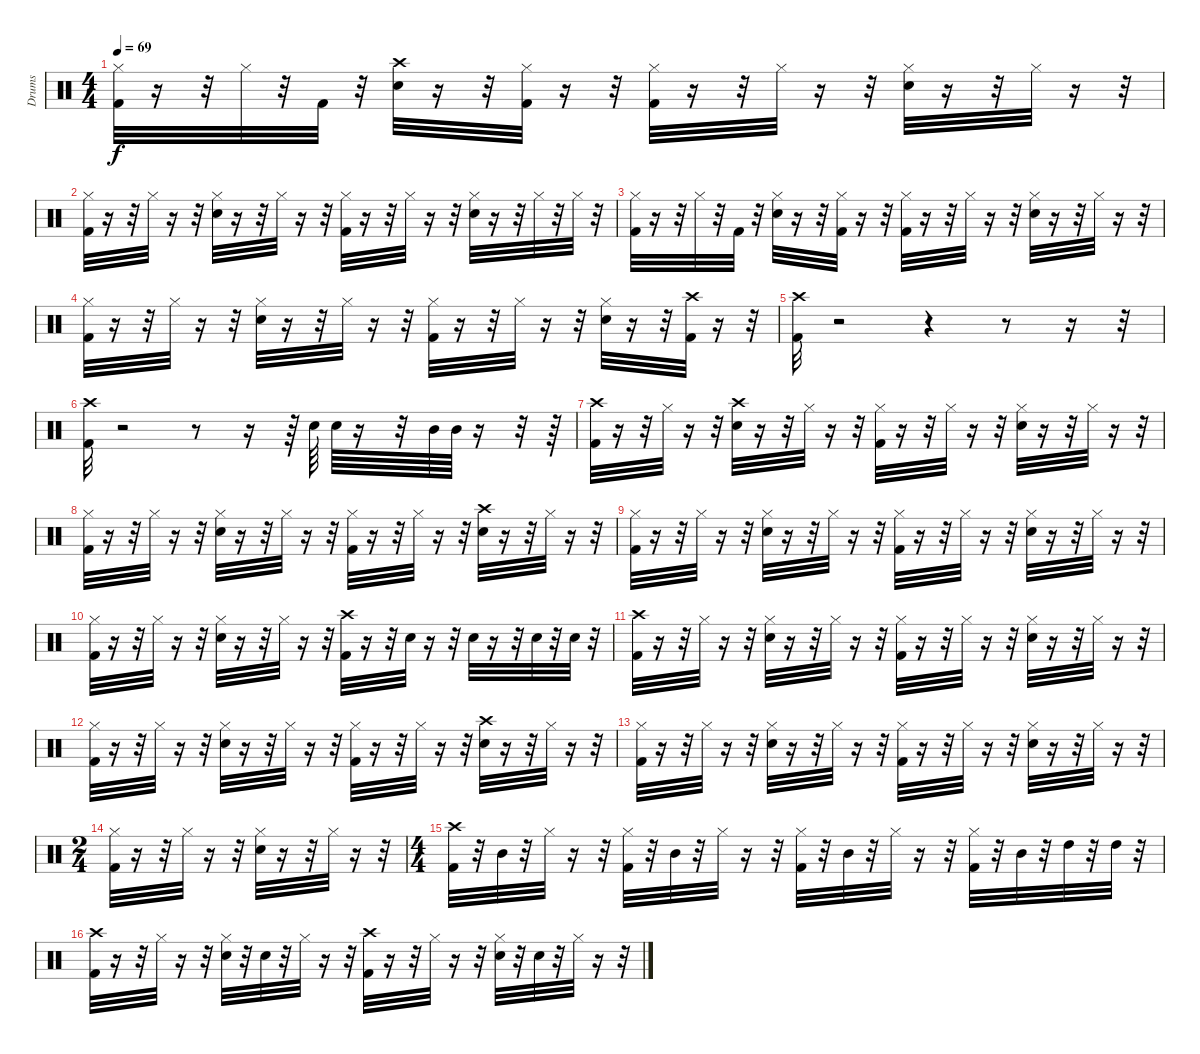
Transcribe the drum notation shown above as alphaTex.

\track ("Drums" "Drums") {instrument percussion}
\staff {score}
\articulation defaults
\ts (4 4)
\tempo 69
\clef neutral
\ks c
("Hi-Hat (closed)" "Kick (hit) 2").32{dy f} r.16 r.32 "Hi-Hat (closed)".32 r.32 "Kick (hit) 2".32 r.32 ("Crash high (hit)" "Snare (hit) 2").32 r.16 r.32 ("Hi-Hat (closed)" "Kick (hit) 2").32 r.16 r.32 ("Hi-Hat (closed)" "Kick (hit) 2").32 r.16 r.32 "Hi-Hat (closed)".32 r.16 r.32 ("Snare (hit) 2" "Hi-Hat (closed)").32 r.16 r.32 "Hi-Hat (closed)".32 r.16 r.32 |
("Hi-Hat (closed)" "Kick (hit) 2").32 r.16 r.32 "Hi-Hat (closed)".32 r.16 r.32 ("Snare (hit) 2" "Hi-Hat (closed)").32 r.16 r.32 "Hi-Hat (closed)".32 r.16 r.32 ("Kick (hit) 2" "Hi-Hat (closed)").32 r.16 r.32 "Hi-Hat (closed)".32 r.16 r.32 ("Hi-Hat (closed)" "Snare (hit) 2").32 r.16 r.32 "Hi-Hat (closed)".32 r.32 "Hi-Hat (closed)".32 r.32 |
("Hi-Hat (closed)" "Kick (hit) 2").32 r.16 r.32 "Hi-Hat (closed)".32 r.32 "Kick (hit) 2".32 r.32 ("Snare (hit) 2" "Hi-Hat (closed)").32 r.16 r.32 ("Kick (hit) 2" "Hi-Hat (closed)").32 r.16 r.32 ("Hi-Hat (closed)" "Kick (hit) 2").32 r.16 r.32 "Hi-Hat (closed)".32 r.16 r.32 ("Snare (hit) 2" "Hi-Hat (closed)").32 r.16 r.32 "Hi-Hat (closed)".32 r.16 r.32 |
("Hi-Hat (closed)" "Kick (hit) 2").32 r.16 r.32 "Hi-Hat (closed)".32 r.16 r.32 ("Snare (hit) 2" "Hi-Hat (closed)").32 r.16 r.32 "Hi-Hat (closed)".32 r.16 r.32 ("Hi-Hat (closed)" "Kick (hit) 2").32 r.16 r.32 "Hi-Hat (closed)".32 r.16 r.32 ("Snare (hit) 2" "Hi-Hat (closed)").32 r.16 r.32 ("Crash high (hit)" "Kick (hit) 2").32 r.16 r.32 |
("Kick (hit) 2" "Crash high (hit)").32 r.2 r.4 r.8 r.16 r.32 |
("Kick (hit) 2" "Crash high (hit)").32 r.2 r.8 r.16 r.64 "Snare (hit) 2".64 "Snare (hit) 2".64 r.16 r.32 "Mid Tom (hit)".64 "Mid Tom (hit)".64 r.16 r.32 r.64 |
("Kick (hit) 2" "Crash high (hit)").32 r.16 r.32 "Hi-Hat (closed)".32 r.16 r.32 ("Crash high (hit)" "Snare (hit) 2").32 r.16 r.32 "Hi-Hat (closed)".32 r.16 r.32 ("Hi-Hat (closed)" "Kick (hit) 2").32 r.16 r.32 "Hi-Hat (closed)".32 r.16 r.32 ("Snare (hit) 2" "Hi-Hat (closed)").32 r.16 r.32 "Hi-Hat (closed)".32 r.16 r.32 |
("Kick (hit) 2" "Hi-Hat (closed)").32 r.16 r.32 "Hi-Hat (closed)".32 r.16 r.32 ("Snare (hit) 2" "Hi-Hat (closed)").32 r.16 r.32 "Hi-Hat (closed)".32 r.16 r.32 ("Hi-Hat (closed)" "Kick (hit) 2").32 r.16 r.32 "Hi-Hat (closed)".32 r.16 r.32 ("Crash high (hit)" "Snare (hit) 2").32 r.16 r.32 "Hi-Hat (closed)".32 r.16 r.32 |
("Hi-Hat (closed)" "Kick (hit) 2").32 r.16 r.32 "Hi-Hat (closed)".32 r.16 r.32 ("Snare (hit) 2" "Hi-Hat (closed)").32 r.16 r.32 "Hi-Hat (closed)".32 r.16 r.32 ("Hi-Hat (closed)" "Kick (hit) 2").32 r.16 r.32 "Hi-Hat (closed)".32 r.16 r.32 ("Snare (hit) 2" "Hi-Hat (closed)").32 r.16 r.32 "Hi-Hat (closed)".32 r.16 r.32 |
("Kick (hit) 2" "Hi-Hat (closed)").32 r.16 r.32 "Hi-Hat (closed)".32 r.16 r.32 ("Snare (hit) 2" "Hi-Hat (closed)").32 r.16 r.32 "Hi-Hat (closed)".32 r.16 r.32 ("Crash high (hit)" "Kick (hit) 2").32 r.16 r.32 "Snare (hit) 2".32 r.16 r.32 "Snare (hit) 2".32 r.16 r.32 "Snare (hit) 2".32 r.32 "Snare (hit) 2".32 r.32 |
("Kick (hit) 2" "Crash high (hit)").32 r.16 r.32 "Hi-Hat (closed)".32 r.16 r.32 ("Snare (hit) 2" "Hi-Hat (closed)").32 r.16 r.32 "Hi-Hat (closed)".32 r.16 r.32 ("Hi-Hat (closed)" "Kick (hit) 2").32 r.16 r.32 "Hi-Hat (closed)".32 r.16 r.32 ("Snare (hit) 2" "Hi-Hat (closed)").32 r.16 r.32 "Hi-Hat (closed)".32 r.16 r.32 |
("Kick (hit) 2" "Hi-Hat (closed)").32 r.16 r.32 "Hi-Hat (closed)".32 r.16 r.32 ("Snare (hit) 2" "Hi-Hat (closed)").32 r.16 r.32 "Hi-Hat (closed)".32 r.16 r.32 ("Hi-Hat (closed)" "Kick (hit) 2").32 r.16 r.32 "Hi-Hat (closed)".32 r.16 r.32 ("Crash high (hit)" "Snare (hit) 2").32 r.16 r.32 "Hi-Hat (closed)".32 r.16 r.32 |
("Kick (hit) 2" "Hi-Hat (closed)").32 r.16 r.32 "Hi-Hat (closed)".32 r.16 r.32 ("Snare (hit) 2" "Hi-Hat (closed)").32 r.16 r.32 "Hi-Hat (closed)".32 r.16 r.32 ("Kick (hit) 2" "Hi-Hat (closed)").32 r.16 r.32 "Hi-Hat (closed)".32 r.16 r.32 ("Snare (hit) 2" "Hi-Hat (closed)").32 r.16 r.32 "Hi-Hat (closed)".32 r.16 r.32 |
\ts (2 4)
("Kick (hit) 2" "Hi-Hat (closed)").32 r.16 r.32 "Hi-Hat (closed)".32 r.16 r.32 ("Snare (hit) 2" "Hi-Hat (closed)").32 r.16 r.32 "Hi-Hat (closed)".32 r.16 r.32 |
\ts (4 4)
("Kick (hit) 2" "Crash high (hit)").32 r.32 "Mid Tom (hit)".32 r.32 "Hi-Hat (closed)".32 r.16 r.32 ("Hi-Hat (closed)" "Kick (hit) 2").32 r.32 "Mid Tom (hit)".32 r.32 "Hi-Hat (closed)".32 r.16 r.32 ("Hi-Hat (closed)" "Kick (hit) 2").32 r.32 "Mid Tom (hit)".32 r.32 "Hi-Hat (closed)".32 r.16 r.32 ("Hi-Hat (closed)" "Kick (hit) 2").32 r.32 "Mid Tom (hit)".32 r.32 "High Tom (hit)".32 r.32 "High Tom (hit)".32 r.32 |
("Kick (hit) 2" "Crash high (hit)").32 r.16 r.32 "Hi-Hat (closed)".32 r.16 r.32 ("Snare (hit) 2" "Hi-Hat (closed)").32 r.32 "Snare (hit) 2".32 r.32 "Hi-Hat (closed)".32 r.16 r.32 ("Crash high (hit)" "Kick (hit) 2").32 r.16 r.32 "Hi-Hat (closed)".32 r.16 r.32 ("Snare (hit) 2" "Hi-Hat (closed)").32 r.32 "Snare (hit) 2".32 r.32 "Hi-Hat (closed)".32 r.16 r.32
